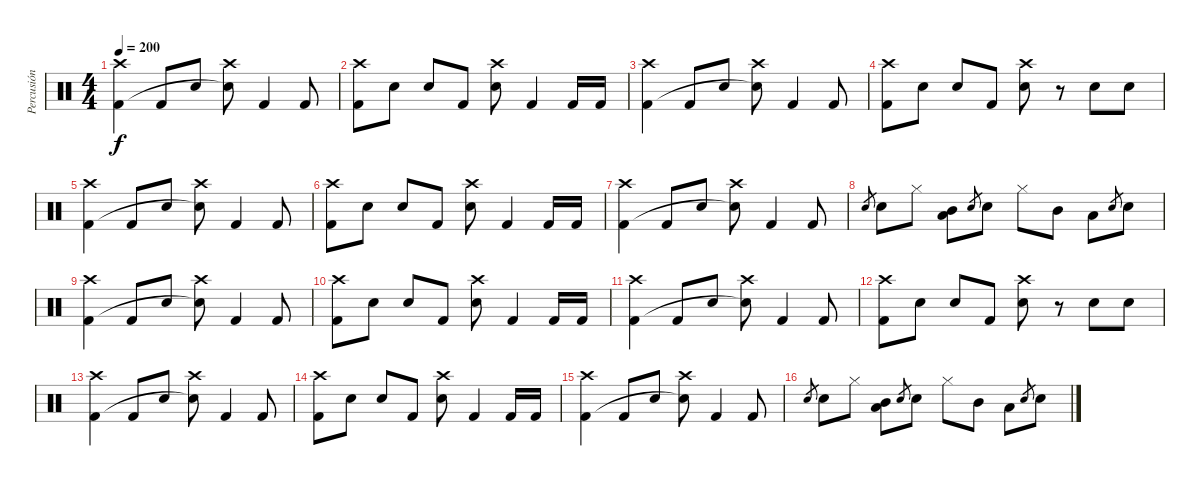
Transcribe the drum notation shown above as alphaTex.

\track ("Percusión" "Percusión") {instrument percussion}
\staff {score}
\articulation defaults
\ts (4 4)
\tempo 200
\clef neutral
\ks c
("Crash high (hit)" "Kick (hit) 2").4{dy f volume 16} "Kick (hit) 2".8 "Electric Snare (hit)".8 ("Crash high (hit)" "Electric Snare (hit)"{t}).8 "Kick (hit) 2".4 "Kick (hit) 2".8 |
("Crash high (hit)" "Kick (hit) 2").8 "Electric Snare (hit)".8 "Electric Snare (hit)".8 "Kick (hit) 2".8 ("Crash high (hit)" "Electric Snare (hit)").8 "Kick (hit) 2".4 "Kick (hit) 2".16 "Kick (hit) 2".16 |
("Crash high (hit)" "Kick (hit) 2").4 "Kick (hit) 2".8 "Electric Snare (hit)".8 ("Crash high (hit)" "Electric Snare (hit)"{t}).8 "Kick (hit) 2".4 "Kick (hit) 2".8 |
("Crash high (hit)" "Kick (hit) 2").8 "Electric Snare (hit)".8 "Electric Snare (hit)".8 "Kick (hit) 2".8 ("Crash high (hit)" "Electric Snare (hit)").8 r.8 "Electric Snare (hit)".8 "Electric Snare (hit)".8 |
("Crash high (hit)" "Kick (hit) 2").4 "Kick (hit) 2".8 "Electric Snare (hit)".8 ("Crash high (hit)" "Electric Snare (hit)"{t}).8 "Kick (hit) 2".4 "Kick (hit) 2".8 |
("Crash high (hit)" "Kick (hit) 2").8 "Electric Snare (hit)".8 "Electric Snare (hit)".8 "Kick (hit) 2".8 ("Crash high (hit)" "Electric Snare (hit)").8 "Kick (hit) 2".4 "Kick (hit) 2".16 "Kick (hit) 2".16 |
("Crash high (hit)" "Kick (hit) 2").4 "Kick (hit) 2".8 "Electric Snare (hit)".8 ("Crash high (hit)" "Electric Snare (hit)"{t}).8 "Kick (hit) 2".4 "Kick (hit) 2".8 |
"Electric Snare (hit)".8{gr} "Electric Snare (hit)".8 "Hi-Hat (closed)".8 ("Low Tom (hit)" "Mid Tom (hit)").8 "Electric Snare (hit)".8{gr} "Electric Snare (hit)".8 "Hi-Hat (closed)".8 "Mid Tom (hit)".8 "Low Tom (hit)".8 "Electric Snare (hit)".8{gr} "Electric Snare (hit)".8 |
("Crash high (hit)" "Kick (hit) 2").4{volume 16} "Kick (hit) 2".8 "Electric Snare (hit)".8 ("Crash high (hit)" "Electric Snare (hit)"{t}).8 "Kick (hit) 2".4 "Kick (hit) 2".8 |
("Crash high (hit)" "Kick (hit) 2").8 "Electric Snare (hit)".8 "Electric Snare (hit)".8 "Kick (hit) 2".8 ("Crash high (hit)" "Electric Snare (hit)").8 "Kick (hit) 2".4 "Kick (hit) 2".16 "Kick (hit) 2".16 |
("Crash high (hit)" "Kick (hit) 2").4 "Kick (hit) 2".8 "Electric Snare (hit)".8 ("Crash high (hit)" "Electric Snare (hit)"{t}).8 "Kick (hit) 2".4 "Kick (hit) 2".8 |
("Crash high (hit)" "Kick (hit) 2").8 "Electric Snare (hit)".8 "Electric Snare (hit)".8 "Kick (hit) 2".8 ("Crash high (hit)" "Electric Snare (hit)").8 r.8 "Electric Snare (hit)".8 "Electric Snare (hit)".8 |
("Crash high (hit)" "Kick (hit) 2").4 "Kick (hit) 2".8 "Electric Snare (hit)".8 ("Crash high (hit)" "Electric Snare (hit)"{t}).8 "Kick (hit) 2".4 "Kick (hit) 2".8 |
("Crash high (hit)" "Kick (hit) 2").8 "Electric Snare (hit)".8 "Electric Snare (hit)".8 "Kick (hit) 2".8 ("Crash high (hit)" "Electric Snare (hit)").8 "Kick (hit) 2".4 "Kick (hit) 2".16 "Kick (hit) 2".16 |
("Crash high (hit)" "Kick (hit) 2").4 "Kick (hit) 2".8 "Electric Snare (hit)".8 ("Crash high (hit)" "Electric Snare (hit)"{t}).8 "Kick (hit) 2".4 "Kick (hit) 2".8 |
"Electric Snare (hit)".8{gr} "Electric Snare (hit)".8 "Hi-Hat (closed)".8 ("Low Tom (hit)" "Mid Tom (hit)").8 "Electric Snare (hit)".8{gr} "Electric Snare (hit)".8 "Hi-Hat (closed)".8 "Mid Tom (hit)".8 "Low Tom (hit)".8 "Electric Snare (hit)".8{gr} "Electric Snare (hit)".8
